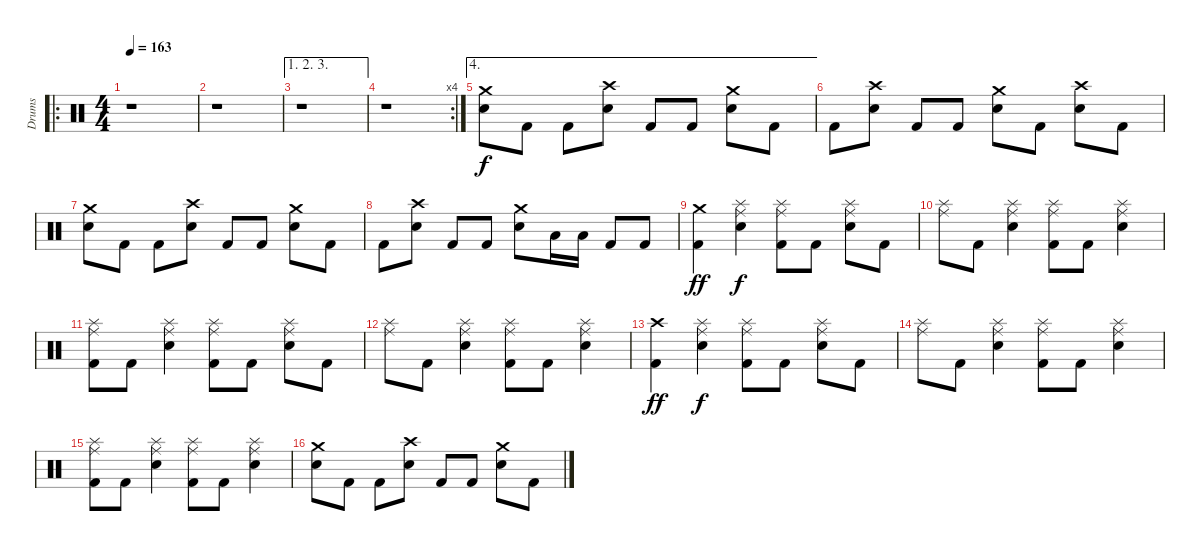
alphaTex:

\track ("Drums" "Drums") {instrument percussion}
\staff {score}
\articulation defaults
\ro
\ts (4 4)
\tempo 163
\clef neutral
\ks c
r.1{dy f} |
r.1 |
\ae (1 2 3)
r.1 |
\rc 4
r.1 |
\ae 4
("Crash medium (hit)" "Electric Snare (hit)").8 "Kick (hit) 2".8 "Kick (hit) 2".8 ("Crash high (hit)" "Electric Snare (hit)").8 "Kick (hit) 2".8 "Kick (hit) 2".8 ("Crash medium (hit)" "Electric Snare (hit)").8 "Kick (hit) 2".8 |
"Kick (hit) 2".8 ("Crash high (hit)" "Electric Snare (hit)").8 "Kick (hit) 2".8 "Kick (hit) 2".8 ("Crash medium (hit)" "Electric Snare (hit)").8 "Kick (hit) 2".8 ("Crash high (hit)" "Electric Snare (hit)").8 "Kick (hit) 2".8 |
("Crash medium (hit)" "Electric Snare (hit)").8 "Kick (hit) 2".8 "Kick (hit) 2".8 ("Crash high (hit)" "Electric Snare (hit)").8 "Kick (hit) 2".8 "Kick (hit) 2".8 ("Crash medium (hit)" "Electric Snare (hit)").8 "Kick (hit) 2".8 |
"Kick (hit) 2".8 ("Crash high (hit)" "Electric Snare (hit)").8 "Kick (hit) 2".8 "Kick (hit) 2".8 ("Crash medium (hit)" "Electric Snare (hit)").8 "Low Tom (hit)".16 "Low Tom (hit)".16 "Kick (hit) 2".8 "Kick (hit) 2".8 |
("Crash medium (hit)" "Kick (hit) 2").4{dy ff} ("Splash (hit)" "Ride (middle)" "Electric Snare (hit)").4{dy f} ("Splash (hit)" "Ride (middle)" "Kick (hit) 2").8 "Kick (hit) 2".8 ("Splash (hit)" "Ride (middle)" "Electric Snare (hit)").8 "Kick (hit) 2".8 |
("Splash (hit)" "Ride (middle)").8 "Kick (hit) 2".8 ("Splash (hit)" "Ride (middle)" "Electric Snare (hit)").4 ("Splash (hit)" "Ride (middle)" "Kick (hit) 2").8 "Kick (hit) 2".8 ("Splash (hit)" "Ride (middle)" "Electric Snare (hit)").4 |
("Splash (hit)" "Ride (middle)" "Kick (hit) 2").8 "Kick (hit) 2".8 ("Splash (hit)" "Ride (middle)" "Electric Snare (hit)").4 ("Splash (hit)" "Ride (middle)" "Kick (hit) 2").8 "Kick (hit) 2".8 ("Splash (hit)" "Ride (middle)" "Electric Snare (hit)").8 "Kick (hit) 2".8 |
("Splash (hit)" "Ride (middle)").8 "Kick (hit) 2".8 ("Splash (hit)" "Ride (middle)" "Electric Snare (hit)").4 ("Splash (hit)" "Ride (middle)" "Kick (hit) 2").8 "Kick (hit) 2".8 ("Splash (hit)" "Ride (middle)" "Electric Snare (hit)").4 |
("Crash high (hit)" "Kick (hit) 2").4{dy ff} ("Splash (hit)" "Ride (middle)" "Electric Snare (hit)").4{dy f} ("Splash (hit)" "Ride (middle)" "Kick (hit) 2").8 "Kick (hit) 2".8 ("Splash (hit)" "Ride (middle)" "Electric Snare (hit)").8 "Kick (hit) 2".8 |
("Splash (hit)" "Ride (middle)").8 "Kick (hit) 2".8 ("Splash (hit)" "Ride (middle)" "Electric Snare (hit)").4 ("Splash (hit)" "Ride (middle)" "Kick (hit) 2").8 "Kick (hit) 2".8 ("Splash (hit)" "Ride (middle)" "Electric Snare (hit)").4 |
("Splash (hit)" "Ride (middle)" "Kick (hit) 2").8 "Kick (hit) 2".8 ("Splash (hit)" "Ride (middle)" "Electric Snare (hit)").4 ("Splash (hit)" "Ride (middle)" "Kick (hit) 2").8 "Kick (hit) 2".8 ("Splash (hit)" "Ride (middle)" "Electric Snare (hit)").4 |
("Crash medium (hit)" "Electric Snare (hit)").8 "Kick (hit) 2".8 "Kick (hit) 2".8 ("Crash high (hit)" "Electric Snare (hit)").8 "Kick (hit) 2".8 "Kick (hit) 2".8 ("Crash medium (hit)" "Electric Snare (hit)").8 "Kick (hit) 2".8
